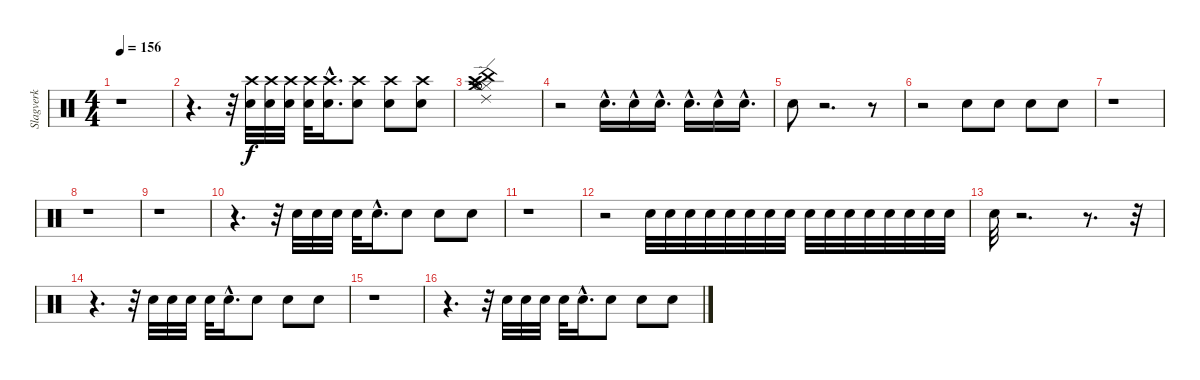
\track ("Slagverk" "Slagverk") {instrument percussion}
\staff {score}
\articulation defaults
\ts (4 4)
\tempo 156
\clef neutral
\ks c
r.1{dy f} |
r.4{d} r.32 ("Snare (hit) 2" "Crash high (hit)").32{volume 4} ("Snare (hit) 2" "Crash high (hit)").32{volume 4} ("Snare (hit) 2" "Crash high (hit)").32{volume 5} ("Snare (hit) 2" "Crash high (hit)").32{volume 6} ("Snare (hit) 2"{hac} "Crash high (hit)"{hac}).16{d volume 7} ("Snare (hit) 2" "Crash high (hit)").8{volume 9} ("Snare (hit) 2" "Crash high (hit)").8{volume 12} ("Snare (hit) 2" "Crash high (hit)").8 |
("Hi-Hat (closed)" "Hi-Hat (open)" "Crash high (hit)" "China (hit)" "Ride (edge) 2" "Crash medium (hit)").1{volume 7} |
r.2 "Snare (hit) 2"{hac}.16{d volume 3} "Snare (hit) 2"{hac}.16{volume 4} "Snare (hit) 2"{hac}.16{d volume 4} "Snare (hit) 2"{hac}.16{d volume 4} "Snare (hit) 2"{hac}.16{volume 5} "Snare (hit) 2"{hac}.16{d volume 5} |
"Snare (hit) 2".8{volume 6} r.2{d} r.8 |
r.2 "Snare (hit) 2".8{volume 7} "Snare (hit) 2".8 "Snare (hit) 2".8 "Snare (hit) 2".8 |
r.1 |
r.1 |
r.1 |
r.4{d} r.32 "Snare (hit) 2".32{volume 4} "Snare (hit) 2".32{volume 4} "Snare (hit) 2".32{volume 5} "Snare (hit) 2".32{volume 6} "Snare (hit) 2"{hac}.16{d volume 7} "Snare (hit) 2".8{volume 9} "Snare (hit) 2".8{volume 12} "Snare (hit) 2".8 |
r.1 |
r.2 "Snare (hit) 2".32{volume 0} "Snare (hit) 2".32{volume 0} "Snare (hit) 2".32{volume 1} "Snare (hit) 2".32{volume 2} "Snare (hit) 2".32{volume 2} "Snare (hit) 2".32{volume 3} "Snare (hit) 2".32{volume 3} "Snare (hit) 2".32{volume 4} "Snare (hit) 2".32{volume 4} "Snare (hit) 2".32{volume 5} "Snare (hit) 2".32{volume 5} "Snare (hit) 2".32{volume 6} "Snare (hit) 2".32{volume 6} "Snare (hit) 2".32{volume 7} "Snare (hit) 2".32 "Snare (hit) 2".32 |
"Snare (hit) 2".32 r.2{d} r.8{d} r.32 |
r.4{d} r.32 "Snare (hit) 2".32{volume 4} "Snare (hit) 2".32{volume 4} "Snare (hit) 2".32{volume 5} "Snare (hit) 2".32{volume 6} "Snare (hit) 2"{hac}.16{d volume 7} "Snare (hit) 2".8{volume 9} "Snare (hit) 2".8{volume 12} "Snare (hit) 2".8 |
r.1 |
r.4{d} r.32 "Snare (hit) 2".32{volume 4} "Snare (hit) 2".32{volume 4} "Snare (hit) 2".32{volume 5} "Snare (hit) 2".32{volume 6} "Snare (hit) 2"{hac}.16{d volume 7} "Snare (hit) 2".8{volume 9} "Snare (hit) 2".8{volume 12} "Snare (hit) 2".8
